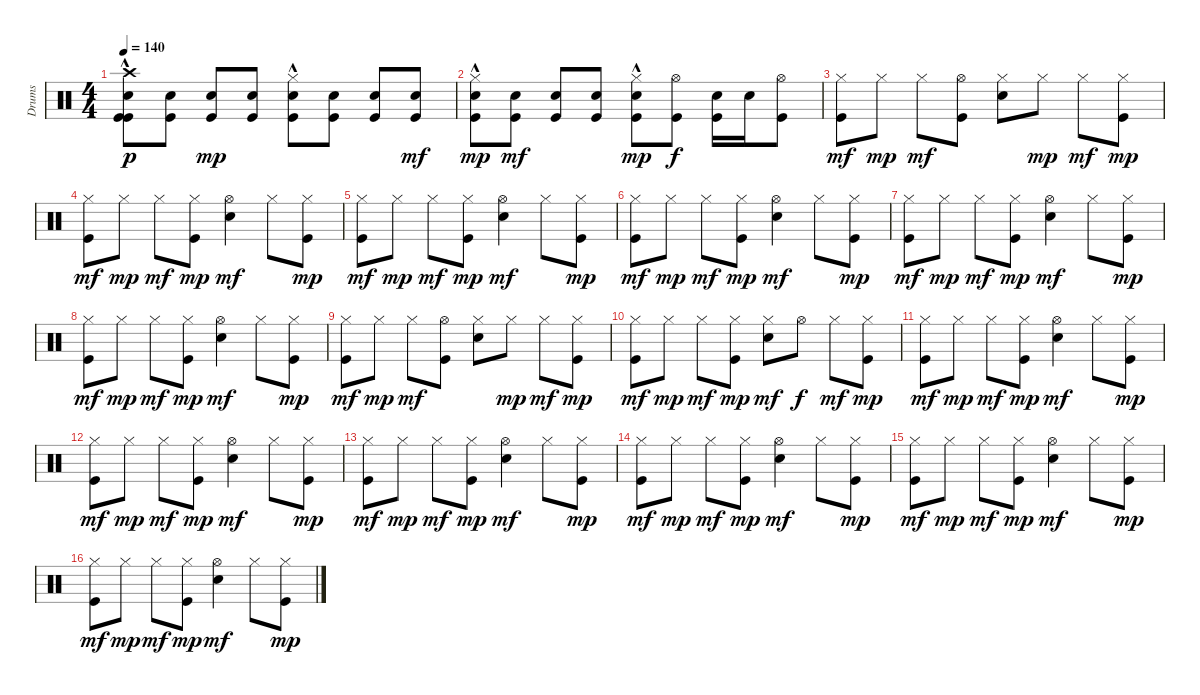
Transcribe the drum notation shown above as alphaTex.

\track ("Drums" "Drums") {instrument percussion}
\staff {score}
\articulation defaults
\ts (4 4)
\tempo 140
\clef neutral
\ks c
("Kick (hit)" "Electric Snare (hit)" "Crash high (hit)"{hac} "Kick (hit)").8{dy p} ("Kick (hit)" "Electric Snare (hit)").8 ("Kick (hit)" "Electric Snare (hit)").8{dy mp} ("Kick (hit)" "Electric Snare (hit)").8 ("Kick (hit)" "Electric Snare (hit)" "Hi-Hat (closed)"{hac}).8 ("Kick (hit)" "Electric Snare (hit)").8 ("Kick (hit)" "Electric Snare (hit)").8 ("Kick (hit)" "Electric Snare (hit)").8{dy mf} |
("Kick (hit)" "Electric Snare (hit)" "Hi-Hat (closed)"{hac}).8{dy mp} ("Kick (hit)" "Electric Snare (hit)").8{dy mf} ("Kick (hit)" "Electric Snare (hit)").8 ("Electric Snare (hit)" "Kick (hit)").8 ("Kick (hit)" "Electric Snare (hit)" "Hi-Hat (closed)"{hac}).8{dy mp} ("Kick (hit)" "Hi-Hat (open)").8{dy f} ("Kick (hit)" "Electric Snare (hit)").16 "Electric Snare (hit)".16 ("Kick (hit)" "Hi-Hat (open)").8 |
("Kick (hit)" "Hi-Hat (closed)").8{dy mf} "Hi-Hat (closed)".8{dy mp} "Hi-Hat (closed)".8{dy mf} ("Kick (hit)" "Hi-Hat (open)").8 ("Electric Snare (hit)" "Hi-Hat (closed)").8 "Hi-Hat (closed)".8{dy mp} "Hi-Hat (closed)".8{dy mf} ("Kick (hit)" "Hi-Hat (closed)").8{dy mp} |
("Hi-Hat (closed)" "Kick (hit)").8{dy mf} "Hi-Hat (closed)".8{dy mp} "Hi-Hat (closed)".8{dy mf} ("Hi-Hat (closed)" "Kick (hit)").8{dy mp} ("Hi-Hat (open)" "Electric Snare (hit)").4{dy mf} "Hi-Hat (closed)".8 ("Hi-Hat (closed)" "Kick (hit)").8{dy mp} |
("Hi-Hat (closed)" "Kick (hit)").8{dy mf} "Hi-Hat (closed)".8{dy mp} "Hi-Hat (closed)".8{dy mf} ("Hi-Hat (closed)" "Kick (hit)").8{dy mp} ("Hi-Hat (open)" "Electric Snare (hit)").4{dy mf} "Hi-Hat (closed)".8 ("Hi-Hat (closed)" "Kick (hit)").8{dy mp} |
("Hi-Hat (closed)" "Kick (hit)").8{dy mf} "Hi-Hat (closed)".8{dy mp} "Hi-Hat (closed)".8{dy mf} ("Hi-Hat (closed)" "Kick (hit)").8{dy mp} ("Hi-Hat (open)" "Electric Snare (hit)").4{dy mf} "Hi-Hat (closed)".8 ("Hi-Hat (closed)" "Kick (hit)").8{dy mp} |
("Kick (hit)" "Hi-Hat (closed)").8{dy mf} "Hi-Hat (closed)".8{dy mp} "Hi-Hat (closed)".8{dy mf} ("Kick (hit)" "Hi-Hat (closed)").8{dy mp} ("Electric Snare (hit)" "Hi-Hat (open)").4{dy mf} "Hi-Hat (closed)".8 ("Kick (hit)" "Hi-Hat (closed)").8{dy mp} |
("Kick (hit)" "Hi-Hat (closed)").8{dy mf} "Hi-Hat (closed)".8{dy mp} "Hi-Hat (closed)".8{dy mf} ("Kick (hit)" "Hi-Hat (closed)").8{dy mp} ("Electric Snare (hit)" "Hi-Hat (open)").4{dy mf} "Hi-Hat (closed)".8 ("Kick (hit)" "Hi-Hat (closed)").8{dy mp} |
("Hi-Hat (closed)" "Kick (hit)").8{dy mf} "Hi-Hat (closed)".8{dy mp} "Hi-Hat (closed)".8{dy mf} ("Hi-Hat (open)" "Kick (hit)").8 ("Hi-Hat (closed)" "Electric Snare (hit)").8 "Hi-Hat (closed)".8{dy mp} "Hi-Hat (closed)".8{dy mf} ("Hi-Hat (closed)" "Kick (hit)").8{dy mp} |
("Hi-Hat (closed)" "Kick (hit)").8{dy mf} "Hi-Hat (closed)".8{dy mp} "Hi-Hat (closed)".8{dy mf} ("Hi-Hat (closed)" "Kick (hit)").8{dy mp} ("Hi-Hat (closed)" "Electric Snare (hit)").8{dy mf} "Hi-Hat (open)".8{dy f} "Hi-Hat (closed)".8{dy mf} ("Hi-Hat (closed)" "Kick (hit)").8{dy mp} |
("Kick (hit)" "Hi-Hat (closed)").8{dy mf} "Hi-Hat (closed)".8{dy mp} "Hi-Hat (closed)".8{dy mf} ("Kick (hit)" "Hi-Hat (closed)").8{dy mp} ("Electric Snare (hit)" "Hi-Hat (open)").4{dy mf} "Hi-Hat (closed)".8 ("Kick (hit)" "Hi-Hat (closed)").8{dy mp} |
("Kick (hit)" "Hi-Hat (closed)").8{dy mf} "Hi-Hat (closed)".8{dy mp} "Hi-Hat (closed)".8{dy mf} ("Kick (hit)" "Hi-Hat (closed)").8{dy mp} ("Electric Snare (hit)" "Hi-Hat (open)").4{dy mf} "Hi-Hat (closed)".8 ("Kick (hit)" "Hi-Hat (closed)").8{dy mp} |
("Kick (hit)" "Hi-Hat (closed)").8{dy mf} "Hi-Hat (closed)".8{dy mp} "Hi-Hat (closed)".8{dy mf} ("Kick (hit)" "Hi-Hat (closed)").8{dy mp} ("Electric Snare (hit)" "Hi-Hat (open)").4{dy mf} "Hi-Hat (closed)".8 ("Kick (hit)" "Hi-Hat (closed)").8{dy mp} |
("Kick (hit)" "Hi-Hat (closed)").8{dy mf} "Hi-Hat (closed)".8{dy mp} "Hi-Hat (closed)".8{dy mf} ("Kick (hit)" "Hi-Hat (closed)").8{dy mp} ("Electric Snare (hit)" "Hi-Hat (open)").4{dy mf} "Hi-Hat (closed)".8 ("Kick (hit)" "Hi-Hat (closed)").8{dy mp} |
("Hi-Hat (closed)" "Kick (hit)").8{dy mf} "Hi-Hat (closed)".8{dy mp} "Hi-Hat (closed)".8{dy mf} ("Hi-Hat (closed)" "Kick (hit)").8{dy mp} ("Hi-Hat (open)" "Electric Snare (hit)").4{dy mf} "Hi-Hat (closed)".8 ("Hi-Hat (closed)" "Kick (hit)").8{dy mp} |
("Hi-Hat (closed)" "Kick (hit)").8{dy mf} "Hi-Hat (closed)".8{dy mp} "Hi-Hat (closed)".8{dy mf} ("Hi-Hat (closed)" "Kick (hit)").8{dy mp} ("Hi-Hat (open)" "Electric Snare (hit)").4{dy mf} "Hi-Hat (closed)".8 ("Hi-Hat (closed)" "Kick (hit)").8{dy mp}
